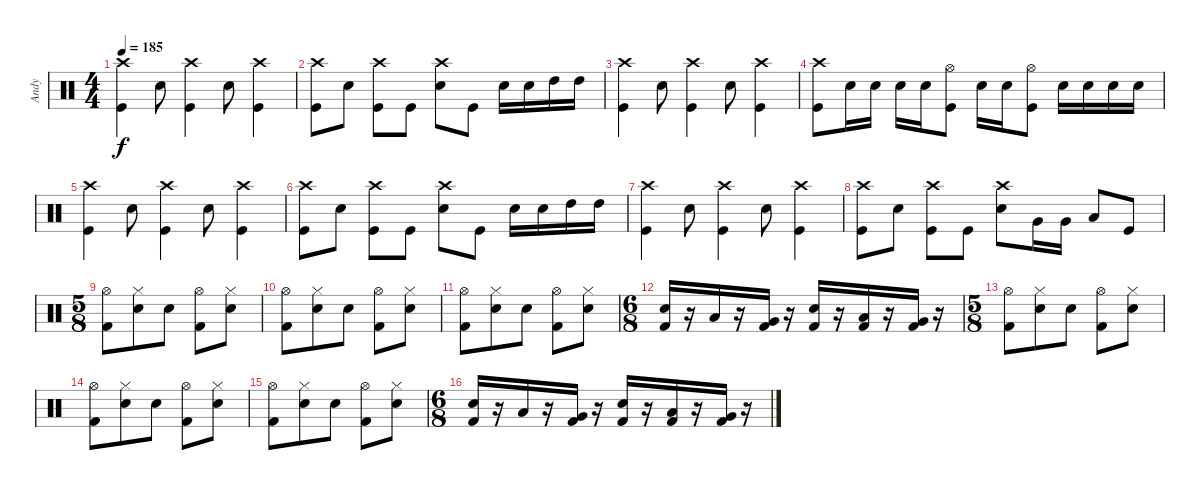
\track ("Andy" "Andy") {instrument percussion}
\staff {score}
\articulation defaults
\ts (4 4)
\tempo 185
\clef neutral
\ks c
("Kick (hit)" "Crash high (hit)").4{dy f} "Snare (hit) 2".8 ("Kick (hit)" "Crash high (hit)").4 "Snare (hit) 2".8 ("Kick (hit)" "Crash high (hit)").4 |
("Kick (hit)" "Crash high (hit)").8 "Snare (hit) 2".8 ("Kick (hit)" "Crash high (hit)").8 "Kick (hit)".8 ("Snare (hit) 2" "Crash high (hit)").8 "Kick (hit)".8 "Snare (hit) 2".16 "Snare (hit) 2".16 "High Tom (hit)".16 "High Tom (hit)".16 |
("Kick (hit)" "Crash high (hit)").4 "Snare (hit) 2".8 ("Kick (hit)" "Crash high (hit)").4 "Snare (hit) 2".8 ("Kick (hit)" "Crash high (hit)").4 |
("Kick (hit)" "Crash high (hit)").8 "Snare (hit) 2".16 "Snare (hit) 2".16 "Snare (hit) 2".16 "Snare (hit) 2".16 ("Kick (hit)" "Hi-Hat (open)").8 "Snare (hit) 2".16 "Snare (hit) 2".16 ("Kick (hit)" "Hi-Hat (open)").8 "Snare (hit) 2".16 "Snare (hit) 2".16 "Snare (hit) 2".16 "Snare (hit) 2".16 |
("Kick (hit)" "Crash high (hit)").4 "Snare (hit) 2".8 ("Kick (hit)" "Crash high (hit)").4 "Snare (hit) 2".8 ("Kick (hit)" "Crash high (hit)").4 |
("Kick (hit)" "Crash high (hit)").8 "Snare (hit) 2".8 ("Kick (hit)" "Crash high (hit)").8 "Kick (hit)".8 ("Snare (hit) 2" "Crash high (hit)").8 "Kick (hit)".8 "Snare (hit) 2".16 "Snare (hit) 2".16 "High Tom (hit)".16 "High Tom (hit)".16 |
("Kick (hit)" "Crash high (hit)").4 "Snare (hit) 2".8 ("Kick (hit)" "Crash high (hit)").4 "Snare (hit) 2".8 ("Kick (hit)" "Crash high (hit)").4 |
("Kick (hit)" "Crash high (hit)").8 "Snare (hit) 2".8 ("Kick (hit)" "Crash high (hit)").8 "Kick (hit)".8 ("Snare (hit) 2" "Crash high (hit)").8 "Very Low Tom (hit)".16 "Very Low Tom (hit)".16 "Low Floor Tom (hit)".8 "Kick (hit)".8 |
\ts (5 8)
("Hi-Hat (open)" "Kick (hit) 2").8 ("Hi-Hat (closed)" "Electric Snare (hit)").8 "Electric Snare (hit)".8 ("Hi-Hat (open)" "Kick (hit) 2").8 ("Hi-Hat (closed)" "Electric Snare (hit)").8 |
("Hi-Hat (open)" "Kick (hit) 2").8 ("Hi-Hat (closed)" "Electric Snare (hit)").8 "Electric Snare (hit)".8 ("Hi-Hat (open)" "Kick (hit) 2").8 ("Hi-Hat (closed)" "Electric Snare (hit)").8 |
("Hi-Hat (open)" "Kick (hit) 2").8 ("Hi-Hat (closed)" "Electric Snare (hit)").8 "Electric Snare (hit)".8 ("Hi-Hat (open)" "Kick (hit) 2").8 ("Hi-Hat (closed)" "Electric Snare (hit)").8 |
\ts (6 8)
("Electric Snare (hit)" "Kick (hit) 2").16 r.16 "Low Tom (hit)".16 r.16 ("Very Low Tom (hit)" "Kick (hit) 2").16 r.16 ("Electric Snare (hit)" "Kick (hit) 2").16 r.16 ("Low Tom (hit)" "Kick (hit) 2").16 r.16 ("Very Low Tom (hit)" "Kick (hit) 2").16 r.16 |
\ts (5 8)
("Hi-Hat (open)" "Kick (hit) 2").8 ("Hi-Hat (closed)" "Electric Snare (hit)").8 "Electric Snare (hit)".8 ("Hi-Hat (open)" "Kick (hit) 2").8 ("Hi-Hat (closed)" "Electric Snare (hit)").8 |
("Hi-Hat (open)" "Kick (hit) 2").8 ("Hi-Hat (closed)" "Electric Snare (hit)").8 "Electric Snare (hit)".8 ("Hi-Hat (open)" "Kick (hit) 2").8 ("Hi-Hat (closed)" "Electric Snare (hit)").8 |
("Hi-Hat (open)" "Kick (hit) 2").8 ("Hi-Hat (closed)" "Electric Snare (hit)").8 "Electric Snare (hit)".8 ("Hi-Hat (open)" "Kick (hit) 2").8 ("Hi-Hat (closed)" "Electric Snare (hit)").8 |
\ts (6 8)
("Electric Snare (hit)" "Kick (hit) 2").16 r.16 "Low Tom (hit)".16 r.16 ("Very Low Tom (hit)" "Kick (hit) 2").16 r.16 ("Electric Snare (hit)" "Kick (hit) 2").16 r.16 ("Low Tom (hit)" "Kick (hit) 2").16 r.16 ("Very Low Tom (hit)" "Kick (hit) 2").16 r.16
